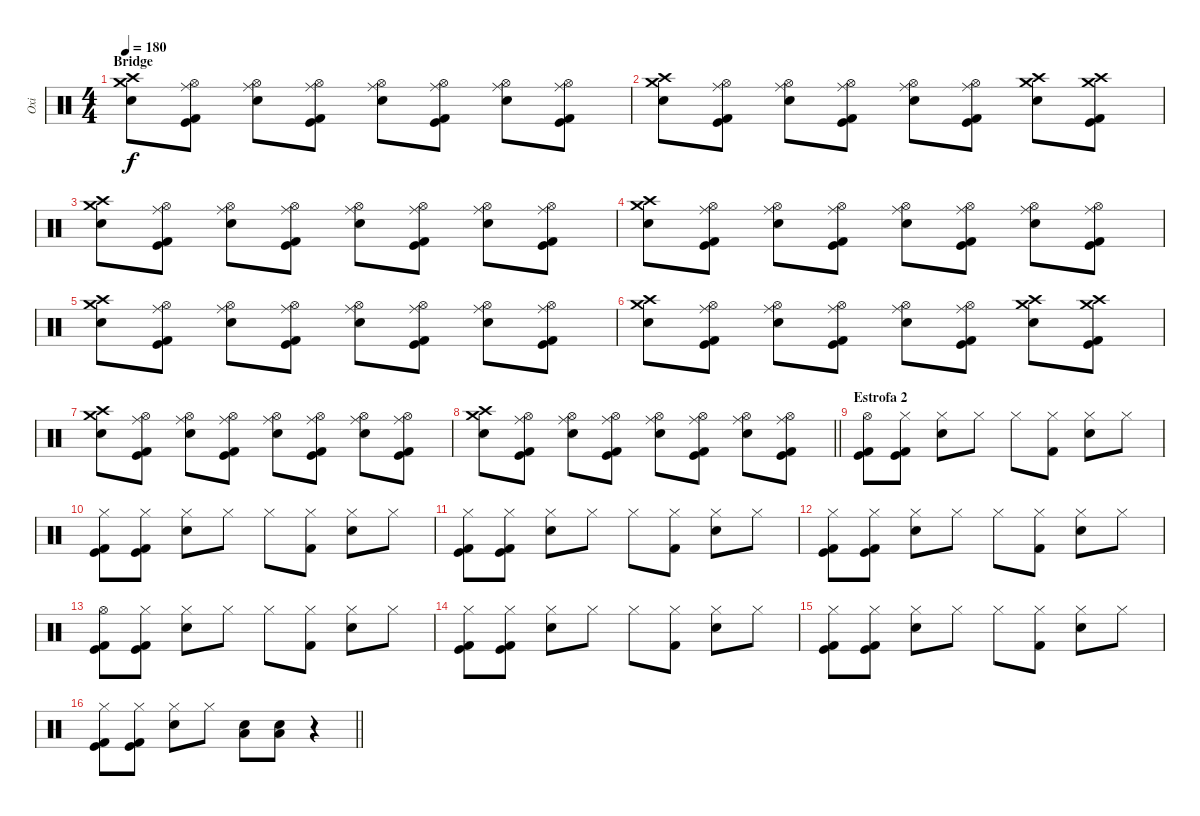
\track ("Oxi" "Oxi") {instrument percussion}
\staff {score}
\articulation defaults
\ts (4 4)
\section ("" "Bridge")
\tempo 180
\clef neutral
\ks c
("Crash medium (hit)" "Crash high (hit)" "Electric Snare (hit)").8{dy f} ("Hi-Hat (open)" "Ride (middle)" "Kick (hit) 2" "Kick (hit)").8 ("Hi-Hat (open)" "Ride (middle)" "Electric Snare (hit)").8 ("Hi-Hat (open)" "Ride (middle)" "Kick (hit) 2" "Kick (hit)").8 ("Hi-Hat (open)" "Ride (middle)" "Electric Snare (hit)").8 ("Hi-Hat (open)" "Ride (middle)" "Kick (hit) 2" "Kick (hit)").8 ("Hi-Hat (open)" "Ride (middle)" "Electric Snare (hit)").8 ("Hi-Hat (open)" "Ride (middle)" "Kick (hit) 2" "Kick (hit)").8 |
("Crash medium (hit)" "Crash high (hit)" "Electric Snare (hit)").8 ("Hi-Hat (open)" "Ride (middle)" "Kick (hit) 2" "Kick (hit)").8 ("Hi-Hat (open)" "Ride (middle)" "Electric Snare (hit)").8 ("Hi-Hat (open)" "Ride (middle)" "Kick (hit) 2" "Kick (hit)").8 ("Hi-Hat (open)" "Ride (middle)" "Electric Snare (hit)").8 ("Hi-Hat (open)" "Ride (middle)" "Kick (hit) 2" "Kick (hit)").8 ("Crash medium (hit)" "Crash high (hit)" "Electric Snare (hit)").8 ("Crash medium (hit)" "Crash high (hit)" "Kick (hit) 2" "Kick (hit)").8 |
("Crash medium (hit)" "Crash high (hit)" "Electric Snare (hit)").8 ("Hi-Hat (open)" "Ride (middle)" "Kick (hit) 2" "Kick (hit)").8 ("Hi-Hat (open)" "Ride (middle)" "Electric Snare (hit)").8 ("Hi-Hat (open)" "Ride (middle)" "Kick (hit) 2" "Kick (hit)").8 ("Hi-Hat (open)" "Ride (middle)" "Electric Snare (hit)").8 ("Hi-Hat (open)" "Ride (middle)" "Kick (hit) 2" "Kick (hit)").8 ("Hi-Hat (open)" "Ride (middle)" "Electric Snare (hit)").8 ("Hi-Hat (open)" "Ride (middle)" "Kick (hit) 2" "Kick (hit)").8 |
("Crash medium (hit)" "Crash high (hit)" "Electric Snare (hit)").8 ("Hi-Hat (open)" "Ride (middle)" "Kick (hit) 2" "Kick (hit)").8 ("Hi-Hat (open)" "Ride (middle)" "Electric Snare (hit)").8 ("Hi-Hat (open)" "Ride (middle)" "Kick (hit) 2" "Kick (hit)").8 ("Hi-Hat (open)" "Ride (middle)" "Electric Snare (hit)").8 ("Hi-Hat (open)" "Ride (middle)" "Kick (hit) 2" "Kick (hit)").8 ("Hi-Hat (open)" "Ride (middle)" "Electric Snare (hit)").8 ("Hi-Hat (open)" "Ride (middle)" "Kick (hit) 2" "Kick (hit)").8 |
("Crash medium (hit)" "Crash high (hit)" "Electric Snare (hit)").8 ("Hi-Hat (open)" "Ride (middle)" "Kick (hit) 2" "Kick (hit)").8 ("Hi-Hat (open)" "Ride (middle)" "Electric Snare (hit)").8 ("Hi-Hat (open)" "Ride (middle)" "Kick (hit) 2" "Kick (hit)").8 ("Hi-Hat (open)" "Ride (middle)" "Electric Snare (hit)").8 ("Hi-Hat (open)" "Ride (middle)" "Kick (hit) 2" "Kick (hit)").8 ("Hi-Hat (open)" "Ride (middle)" "Electric Snare (hit)").8 ("Hi-Hat (open)" "Ride (middle)" "Kick (hit) 2" "Kick (hit)").8 |
("Crash medium (hit)" "Crash high (hit)" "Electric Snare (hit)").8 ("Hi-Hat (open)" "Ride (middle)" "Kick (hit) 2" "Kick (hit)").8 ("Hi-Hat (open)" "Ride (middle)" "Electric Snare (hit)").8 ("Hi-Hat (open)" "Ride (middle)" "Kick (hit) 2" "Kick (hit)").8 ("Hi-Hat (open)" "Ride (middle)" "Electric Snare (hit)").8 ("Hi-Hat (open)" "Ride (middle)" "Kick (hit) 2" "Kick (hit)").8 ("Crash medium (hit)" "Crash high (hit)" "Electric Snare (hit)").8 ("Crash medium (hit)" "Crash high (hit)" "Kick (hit) 2" "Kick (hit)").8 |
("Crash medium (hit)" "Crash high (hit)" "Electric Snare (hit)").8 ("Hi-Hat (open)" "Ride (middle)" "Kick (hit) 2" "Kick (hit)").8 ("Hi-Hat (open)" "Ride (middle)" "Electric Snare (hit)").8 ("Hi-Hat (open)" "Ride (middle)" "Kick (hit) 2" "Kick (hit)").8 ("Hi-Hat (open)" "Ride (middle)" "Electric Snare (hit)").8 ("Hi-Hat (open)" "Ride (middle)" "Kick (hit) 2" "Kick (hit)").8 ("Hi-Hat (open)" "Ride (middle)" "Electric Snare (hit)").8 ("Hi-Hat (open)" "Ride (middle)" "Kick (hit) 2" "Kick (hit)").8 |
\barLineRight lightlight
("Crash medium (hit)" "Crash high (hit)" "Electric Snare (hit)").8 ("Hi-Hat (open)" "Ride (middle)" "Kick (hit) 2" "Kick (hit)").8 ("Hi-Hat (open)" "Ride (middle)" "Electric Snare (hit)").8 ("Hi-Hat (open)" "Ride (middle)" "Kick (hit) 2" "Kick (hit)").8 ("Hi-Hat (open)" "Ride (middle)" "Electric Snare (hit)").8 ("Hi-Hat (open)" "Ride (middle)" "Kick (hit) 2" "Kick (hit)").8 ("Hi-Hat (open)" "Ride (middle)" "Electric Snare (hit)").8 ("Hi-Hat (open)" "Ride (middle)" "Kick (hit) 2" "Kick (hit)").8 |
\section ("" "Estrofa 2")
("Hi-Hat (open)" "Kick (hit) 2" "Kick (hit)").8 ("Hi-Hat (closed)" "Kick (hit) 2" "Kick (hit)").8 ("Hi-Hat (closed)" "Electric Snare (hit)").8 "Hi-Hat (closed)".8 "Hi-Hat (closed)".8 ("Hi-Hat (closed)" "Kick (hit) 2").8 ("Hi-Hat (closed)" "Electric Snare (hit)").8 "Hi-Hat (closed)".8 |
("Hi-Hat (closed)" "Kick (hit) 2" "Kick (hit)").8 ("Hi-Hat (closed)" "Kick (hit) 2" "Kick (hit)").8 ("Hi-Hat (closed)" "Electric Snare (hit)").8 "Hi-Hat (closed)".8 "Hi-Hat (closed)".8 ("Hi-Hat (closed)" "Kick (hit) 2").8 ("Hi-Hat (closed)" "Electric Snare (hit)").8 "Hi-Hat (closed)".8 |
("Hi-Hat (closed)" "Kick (hit) 2" "Kick (hit)").8 ("Hi-Hat (closed)" "Kick (hit) 2" "Kick (hit)").8 ("Hi-Hat (closed)" "Electric Snare (hit)").8 "Hi-Hat (closed)".8 "Hi-Hat (closed)".8 ("Hi-Hat (closed)" "Kick (hit) 2").8 ("Hi-Hat (closed)" "Electric Snare (hit)").8 "Hi-Hat (closed)".8 |
("Hi-Hat (closed)" "Kick (hit) 2" "Kick (hit)").8 ("Hi-Hat (closed)" "Kick (hit) 2" "Kick (hit)").8 ("Hi-Hat (closed)" "Electric Snare (hit)").8 "Hi-Hat (closed)".8 "Hi-Hat (closed)".8 ("Hi-Hat (closed)" "Kick (hit) 2").8 ("Hi-Hat (closed)" "Electric Snare (hit)").8 "Hi-Hat (closed)".8 |
("Hi-Hat (open)" "Kick (hit) 2" "Kick (hit)").8 ("Hi-Hat (closed)" "Kick (hit) 2" "Kick (hit)").8 ("Hi-Hat (closed)" "Electric Snare (hit)").8 "Hi-Hat (closed)".8 "Hi-Hat (closed)".8 ("Hi-Hat (closed)" "Kick (hit) 2").8 ("Hi-Hat (closed)" "Electric Snare (hit)").8 "Hi-Hat (closed)".8 |
("Hi-Hat (closed)" "Kick (hit) 2" "Kick (hit)").8 ("Hi-Hat (closed)" "Kick (hit) 2" "Kick (hit)").8 ("Hi-Hat (closed)" "Electric Snare (hit)").8 "Hi-Hat (closed)".8 "Hi-Hat (closed)".8 ("Hi-Hat (closed)" "Kick (hit) 2").8 ("Hi-Hat (closed)" "Electric Snare (hit)").8 "Hi-Hat (closed)".8 |
("Hi-Hat (closed)" "Kick (hit) 2" "Kick (hit)").8 ("Hi-Hat (closed)" "Kick (hit) 2" "Kick (hit)").8 ("Hi-Hat (closed)" "Electric Snare (hit)").8 "Hi-Hat (closed)".8 "Hi-Hat (closed)".8 ("Hi-Hat (closed)" "Kick (hit) 2").8 ("Hi-Hat (closed)" "Electric Snare (hit)").8 "Hi-Hat (closed)".8 |
\barLineRight lightlight
("Hi-Hat (closed)" "Kick (hit) 2" "Kick (hit)").8 ("Hi-Hat (closed)" "Kick (hit) 2" "Kick (hit)").8 ("Hi-Hat (closed)" "Electric Snare (hit)").8 "Hi-Hat (closed)".8 ("Electric Snare (hit)" "Low Tom (hit)").8 ("Electric Snare (hit)" "Low Tom (hit)").8 r.4
